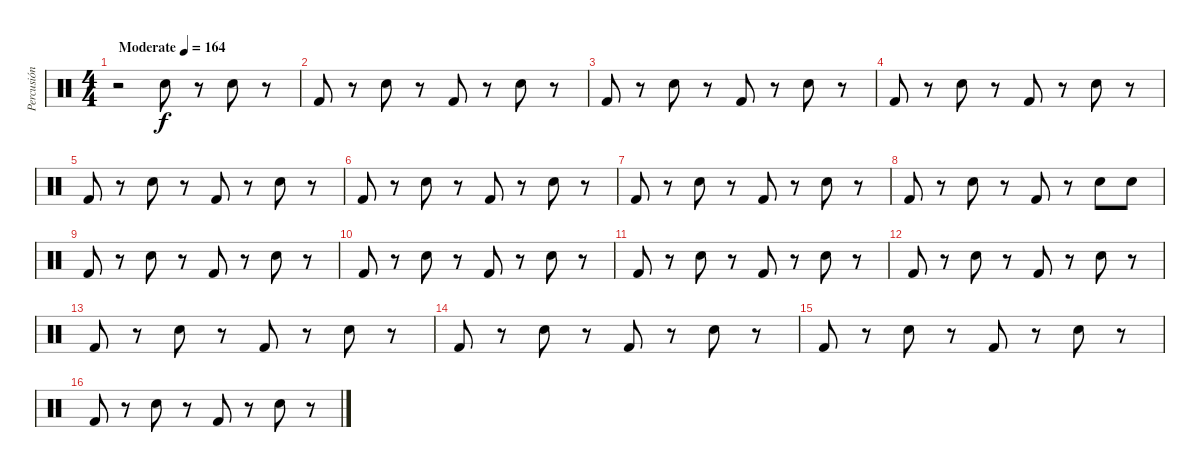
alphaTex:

\track ("Percusión" "Percusión") {instrument percussion}
\staff {score}
\articulation defaults
\ts (4 4)
\tempo (164 "Moderate")
\clef neutral
\ks c
r.2{dy f} "Electric Snare (hit)".8 r.8 "Electric Snare (hit)".8 r.8 |
"Kick (hit) 2".8 r.8 "Electric Snare (hit)".8 r.8 "Kick (hit) 2".8 r.8 "Electric Snare (hit)".8 r.8 |
"Kick (hit) 2".8 r.8 "Electric Snare (hit)".8 r.8 "Kick (hit) 2".8 r.8 "Electric Snare (hit)".8 r.8 |
"Kick (hit) 2".8 r.8 "Electric Snare (hit)".8 r.8 "Kick (hit) 2".8 r.8 "Electric Snare (hit)".8 r.8 |
"Kick (hit) 2".8 r.8 "Electric Snare (hit)".8 r.8 "Kick (hit) 2".8 r.8 "Electric Snare (hit)".8 r.8 |
"Kick (hit) 2".8 r.8 "Electric Snare (hit)".8 r.8 "Kick (hit) 2".8 r.8 "Electric Snare (hit)".8 r.8 |
"Kick (hit) 2".8 r.8 "Electric Snare (hit)".8 r.8 "Kick (hit) 2".8 r.8 "Electric Snare (hit)".8 r.8 |
"Kick (hit) 2".8 r.8 "Electric Snare (hit)".8 r.8 "Kick (hit) 2".8 r.8 "Electric Snare (hit)".8 "Electric Snare (hit)".8 |
"Kick (hit) 2".8 r.8 "Electric Snare (hit)".8 r.8 "Kick (hit) 2".8 r.8 "Electric Snare (hit)".8 r.8 |
"Kick (hit) 2".8 r.8 "Electric Snare (hit)".8 r.8 "Kick (hit) 2".8 r.8 "Electric Snare (hit)".8 r.8 |
"Kick (hit) 2".8 r.8 "Electric Snare (hit)".8 r.8 "Kick (hit) 2".8 r.8 "Electric Snare (hit)".8 r.8 |
"Kick (hit) 2".8 r.8 "Electric Snare (hit)".8 r.8 "Kick (hit) 2".8 r.8 "Electric Snare (hit)".8 r.8 |
"Kick (hit) 2".8 r.8 "Electric Snare (hit)".8 r.8 "Kick (hit) 2".8 r.8 "Electric Snare (hit)".8 r.8 |
"Kick (hit) 2".8 r.8 "Electric Snare (hit)".8 r.8 "Kick (hit) 2".8 r.8 "Electric Snare (hit)".8 r.8 |
"Kick (hit) 2".8 r.8 "Electric Snare (hit)".8 r.8 "Kick (hit) 2".8 r.8 "Electric Snare (hit)".8 r.8 |
"Kick (hit) 2".8 r.8 "Electric Snare (hit)".8 r.8 "Kick (hit) 2".8 r.8 "Electric Snare (hit)".8 r.8
